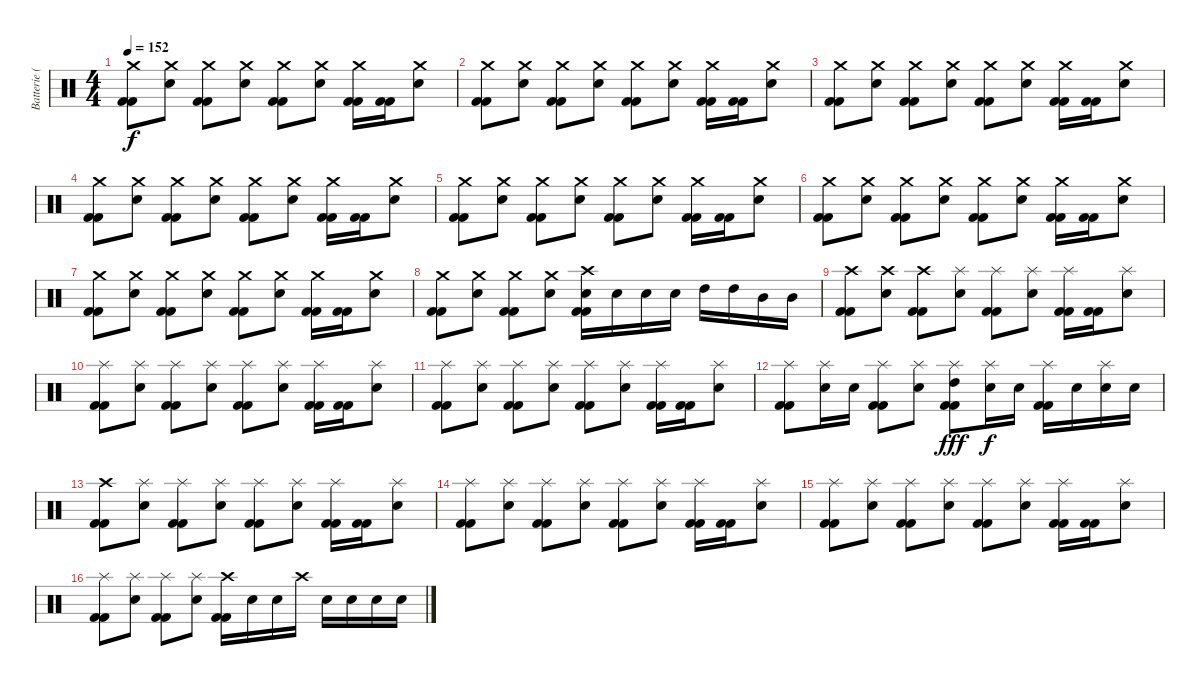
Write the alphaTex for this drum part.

\track ("Batterie (Ben Graves)" "Batterie (") {instrument percussion}
\staff {score}
\articulation defaults
\ts (4 4)
\tempo 152
\clef neutral
\ks c
("Crash medium (hit)" "Kick (hit) 2" "Kick (hit) 2").8{dy f} ("Crash medium (hit)" "Electric Snare (hit)").8 ("Crash medium (hit)" "Kick (hit) 2" "Kick (hit) 2").8 ("Crash medium (hit)" "Electric Snare (hit)").8 ("Crash medium (hit)" "Kick (hit) 2" "Kick (hit) 2").8 ("Crash medium (hit)" "Electric Snare (hit)").8 ("Crash medium (hit)" "Kick (hit) 2" "Kick (hit) 2").16 ("Kick (hit) 2" "Kick (hit) 2").16 ("Crash medium (hit)" "Electric Snare (hit)").8 |
("Crash medium (hit)" "Kick (hit) 2" "Kick (hit) 2").8 ("Crash medium (hit)" "Electric Snare (hit)").8 ("Crash medium (hit)" "Kick (hit) 2" "Kick (hit) 2").8 ("Crash medium (hit)" "Electric Snare (hit)").8 ("Crash medium (hit)" "Kick (hit) 2" "Kick (hit) 2").8 ("Crash medium (hit)" "Electric Snare (hit)").8 ("Crash medium (hit)" "Kick (hit) 2" "Kick (hit) 2").16 ("Kick (hit) 2" "Kick (hit) 2").16 ("Crash medium (hit)" "Electric Snare (hit)").8 |
("Crash medium (hit)" "Kick (hit) 2" "Kick (hit) 2").8 ("Crash medium (hit)" "Electric Snare (hit)").8 ("Crash medium (hit)" "Kick (hit) 2" "Kick (hit) 2").8 ("Crash medium (hit)" "Electric Snare (hit)").8 ("Crash medium (hit)" "Kick (hit) 2" "Kick (hit) 2").8 ("Crash medium (hit)" "Electric Snare (hit)").8 ("Crash medium (hit)" "Kick (hit) 2" "Kick (hit) 2").16 ("Kick (hit) 2" "Kick (hit) 2").16 ("Crash medium (hit)" "Electric Snare (hit)").8 |
("Crash medium (hit)" "Kick (hit) 2" "Kick (hit) 2").8 ("Crash medium (hit)" "Electric Snare (hit)").8 ("Crash medium (hit)" "Kick (hit) 2" "Kick (hit) 2").8 ("Crash medium (hit)" "Electric Snare (hit)").8 ("Crash medium (hit)" "Kick (hit) 2" "Kick (hit) 2").8 ("Crash medium (hit)" "Electric Snare (hit)").8 ("Crash medium (hit)" "Kick (hit) 2" "Kick (hit) 2").16 ("Kick (hit) 2" "Kick (hit) 2").16 ("Crash medium (hit)" "Electric Snare (hit)").8 |
("Crash medium (hit)" "Kick (hit) 2" "Kick (hit) 2").8 ("Crash medium (hit)" "Electric Snare (hit)").8 ("Crash medium (hit)" "Kick (hit) 2" "Kick (hit) 2").8 ("Crash medium (hit)" "Electric Snare (hit)").8 ("Crash medium (hit)" "Kick (hit) 2" "Kick (hit) 2").8 ("Crash medium (hit)" "Electric Snare (hit)").8 ("Crash medium (hit)" "Kick (hit) 2" "Kick (hit) 2").16 ("Kick (hit) 2" "Kick (hit) 2").16 ("Crash medium (hit)" "Electric Snare (hit)").8 |
("Crash medium (hit)" "Kick (hit) 2" "Kick (hit) 2").8 ("Crash medium (hit)" "Electric Snare (hit)").8 ("Crash medium (hit)" "Kick (hit) 2" "Kick (hit) 2").8 ("Crash medium (hit)" "Electric Snare (hit)").8 ("Crash medium (hit)" "Kick (hit) 2" "Kick (hit) 2").8 ("Crash medium (hit)" "Electric Snare (hit)").8 ("Crash medium (hit)" "Kick (hit) 2" "Kick (hit) 2").16 ("Kick (hit) 2" "Kick (hit) 2").16 ("Crash medium (hit)" "Electric Snare (hit)").8 |
("Crash medium (hit)" "Kick (hit) 2" "Kick (hit) 2").8 ("Crash medium (hit)" "Electric Snare (hit)").8 ("Crash medium (hit)" "Kick (hit) 2" "Kick (hit) 2").8 ("Crash medium (hit)" "Electric Snare (hit)").8 ("Crash medium (hit)" "Kick (hit) 2" "Kick (hit) 2").8 ("Crash medium (hit)" "Electric Snare (hit)").8 ("Crash medium (hit)" "Kick (hit) 2" "Kick (hit) 2").16 ("Kick (hit) 2" "Kick (hit) 2").16 ("Crash medium (hit)" "Electric Snare (hit)").8 |
("Crash medium (hit)" "Kick (hit) 2" "Kick (hit) 2").8 ("Crash medium (hit)" "Electric Snare (hit)").8 ("Crash medium (hit)" "Kick (hit) 2" "Kick (hit) 2").8 ("Crash medium (hit)" "Electric Snare (hit)").8 ("Crash high (hit)" "Electric Snare (hit)" "Kick (hit) 2" "Kick (hit) 2").16 "Electric Snare (hit)".16 "Electric Snare (hit)".16 "Electric Snare (hit)".16 "High Tom (hit)".16 "High Tom (hit)".16 "Mid Tom (hit)".16 "Mid Tom (hit)".16 |
("Crash high (hit)" "Kick (hit) 2" "Kick (hit) 2").8 ("Crash high (hit)" "Electric Snare (hit)").8 ("Crash high (hit)" "Kick (hit) 2" "Kick (hit) 2").8 ("Splash (hit)" "Electric Snare (hit)").8 ("Splash (hit)" "Kick (hit) 2" "Kick (hit) 2").8 ("Splash (hit)" "Electric Snare (hit)").8 ("Splash (hit)" "Kick (hit) 2" "Kick (hit) 2").16 ("Kick (hit) 2" "Kick (hit) 2").16 ("Splash (hit)" "Electric Snare (hit)").8 |
("Splash (hit)" "Kick (hit) 2" "Kick (hit) 2").8 ("Splash (hit)" "Electric Snare (hit)").8 ("Splash (hit)" "Kick (hit) 2" "Kick (hit) 2").8 ("Splash (hit)" "Electric Snare (hit)").8 ("Splash (hit)" "Kick (hit) 2" "Kick (hit) 2").8 ("Splash (hit)" "Electric Snare (hit)").8 ("Splash (hit)" "Kick (hit) 2" "Kick (hit) 2").16 ("Kick (hit) 2" "Kick (hit) 2").16 ("Splash (hit)" "Electric Snare (hit)").8 |
("Splash (hit)" "Kick (hit) 2" "Kick (hit) 2").8 ("Splash (hit)" "Electric Snare (hit)").8 ("Splash (hit)" "Kick (hit) 2" "Kick (hit) 2").8 ("Splash (hit)" "Electric Snare (hit)").8 ("Splash (hit)" "Kick (hit) 2" "Kick (hit) 2").8 ("Splash (hit)" "Electric Snare (hit)").8 ("Splash (hit)" "Kick (hit) 2" "Kick (hit) 2").16 ("Kick (hit) 2" "Kick (hit) 2").16 ("Splash (hit)" "Electric Snare (hit)").8 |
("Splash (hit)" "Kick (hit) 2" "Kick (hit) 2").8 ("Splash (hit)" "Electric Snare (hit)").16 "Electric Snare (hit)".16 ("Splash (hit)" "Kick (hit) 2" "Kick (hit) 2").8 ("Splash (hit)" "Electric Snare (hit)").8 ("Splash (hit)" "High Tom (hit)" "Kick (hit) 2" "Kick (hit) 2").8{dy fff} ("Splash (hit)" "Electric Snare (hit)").16{dy f} "Electric Snare (hit)".16 ("Splash (hit)" "Kick (hit) 2" "Kick (hit) 2").16 "Electric Snare (hit)".16 ("Splash (hit)" "Electric Snare (hit)").16 "Electric Snare (hit)".16 |
("Crash high (hit)" "Kick (hit) 2" "Kick (hit) 2").8 ("Splash (hit)" "Electric Snare (hit)").8 ("Splash (hit)" "Kick (hit) 2" "Kick (hit) 2").8 ("Splash (hit)" "Electric Snare (hit)").8 ("Splash (hit)" "Kick (hit) 2" "Kick (hit) 2").8 ("Splash (hit)" "Electric Snare (hit)").8 ("Splash (hit)" "Kick (hit) 2" "Kick (hit) 2").16 ("Kick (hit) 2" "Kick (hit) 2").16 ("Splash (hit)" "Electric Snare (hit)").8 |
("Splash (hit)" "Kick (hit) 2" "Kick (hit) 2").8 ("Splash (hit)" "Electric Snare (hit)").8 ("Splash (hit)" "Kick (hit) 2" "Kick (hit) 2").8 ("Splash (hit)" "Electric Snare (hit)").8 ("Splash (hit)" "Kick (hit) 2" "Kick (hit) 2").8 ("Splash (hit)" "Electric Snare (hit)").8 ("Splash (hit)" "Kick (hit) 2" "Kick (hit) 2").16 ("Kick (hit) 2" "Kick (hit) 2").16 ("Splash (hit)" "Electric Snare (hit)").8 |
("Splash (hit)" "Kick (hit) 2" "Kick (hit) 2").8 ("Splash (hit)" "Electric Snare (hit)").8 ("Splash (hit)" "Kick (hit) 2" "Kick (hit) 2").8 ("Splash (hit)" "Electric Snare (hit)").8 ("Splash (hit)" "Kick (hit) 2" "Kick (hit) 2").8 ("Splash (hit)" "Electric Snare (hit)").8 ("Splash (hit)" "Kick (hit) 2" "Kick (hit) 2").16 ("Kick (hit) 2" "Kick (hit) 2").16 ("Splash (hit)" "Electric Snare (hit)").8 |
("Splash (hit)" "Kick (hit) 2" "Kick (hit) 2").8 ("Splash (hit)" "Electric Snare (hit)").8 ("Splash (hit)" "Kick (hit) 2" "Kick (hit) 2").8 ("Splash (hit)" "Electric Snare (hit)").8 ("Crash high (hit)" "Kick (hit) 2" "Kick (hit) 2").16 "Electric Snare (hit)".16 "Electric Snare (hit)".16 "Crash high (hit)".16 "Electric Snare (hit)".16 "Electric Snare (hit)".16 "Electric Snare (hit)".16 "Electric Snare (hit)".16
